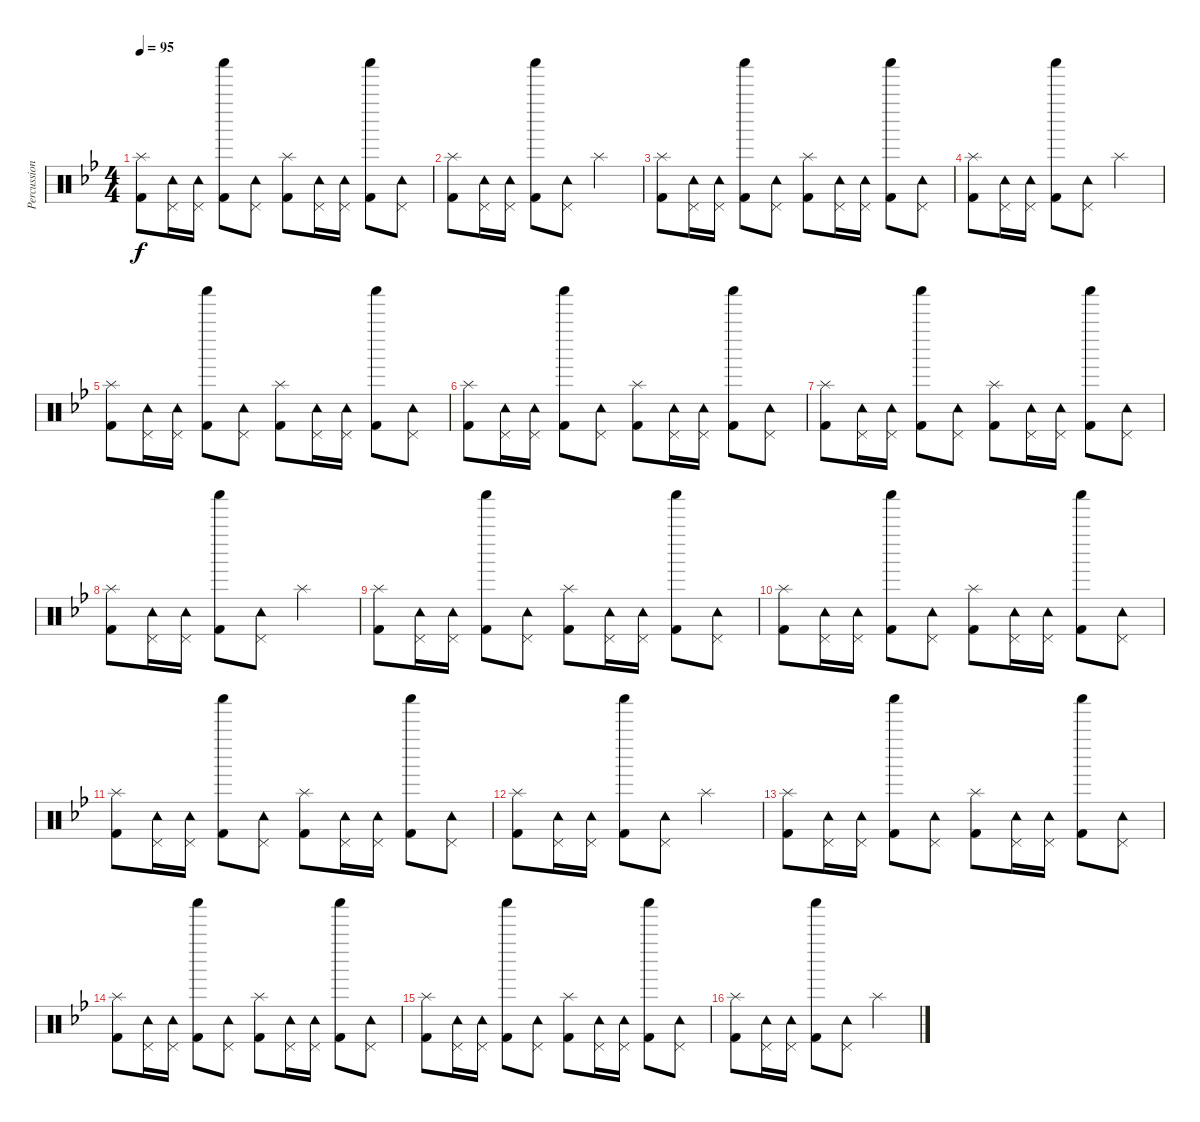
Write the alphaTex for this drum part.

\track ("Percussion" "Percussion") {instrument percussion}
\staff {score}
\articulation defaults
\ts (4 4)
\tempo 95
\clef neutral
\ks bb
("Kick (hit) 2" "Splash (hit)").8{dy f} ("Tambourine (hit)" "Pedal Hi-Hat (hit)").16 ("Tambourine (hit)" "Pedal Hi-Hat (hit)").16 ("Kick (hit) 2" "Shaker (hit)").8 ("Tambourine (hit)" "Pedal Hi-Hat (hit)").8 ("Kick (hit) 2" "Splash (hit)").8 ("Tambourine (hit)" "Pedal Hi-Hat (hit)").16 ("Tambourine (hit)" "Pedal Hi-Hat (hit)").16 ("Kick (hit) 2" "Shaker (hit)").8 ("Tambourine (hit)" "Pedal Hi-Hat (hit)").8 |
("Kick (hit) 2" "Splash (hit)").8 ("Tambourine (hit)" "Pedal Hi-Hat (hit)").16 ("Tambourine (hit)" "Pedal Hi-Hat (hit)").16 ("Kick (hit) 2" "Shaker (hit)").8 ("Tambourine (hit)" "Pedal Hi-Hat (hit)").8 "Splash (hit)".2 |
("Kick (hit) 2" "Splash (hit)").8 ("Tambourine (hit)" "Pedal Hi-Hat (hit)").16 ("Tambourine (hit)" "Pedal Hi-Hat (hit)").16 ("Kick (hit) 2" "Shaker (hit)").8 ("Tambourine (hit)" "Pedal Hi-Hat (hit)").8 ("Kick (hit) 2" "Splash (hit)").8 ("Tambourine (hit)" "Pedal Hi-Hat (hit)").16 ("Tambourine (hit)" "Pedal Hi-Hat (hit)").16 ("Kick (hit) 2" "Shaker (hit)").8 ("Tambourine (hit)" "Pedal Hi-Hat (hit)").8 |
("Kick (hit) 2" "Splash (hit)").8 ("Tambourine (hit)" "Pedal Hi-Hat (hit)").16 ("Tambourine (hit)" "Pedal Hi-Hat (hit)").16 ("Kick (hit) 2" "Shaker (hit)").8 ("Tambourine (hit)" "Pedal Hi-Hat (hit)").8 "Splash (hit)".2 |
("Kick (hit) 2" "Splash (hit)").8 ("Tambourine (hit)" "Pedal Hi-Hat (hit)").16 ("Tambourine (hit)" "Pedal Hi-Hat (hit)").16 ("Kick (hit) 2" "Shaker (hit)").8 ("Tambourine (hit)" "Pedal Hi-Hat (hit)").8 ("Kick (hit) 2" "Splash (hit)").8 ("Tambourine (hit)" "Pedal Hi-Hat (hit)").16 ("Tambourine (hit)" "Pedal Hi-Hat (hit)").16 ("Kick (hit) 2" "Shaker (hit)").8 ("Tambourine (hit)" "Pedal Hi-Hat (hit)").8 |
("Kick (hit) 2" "Splash (hit)").8 ("Tambourine (hit)" "Pedal Hi-Hat (hit)").16 ("Tambourine (hit)" "Pedal Hi-Hat (hit)").16 ("Kick (hit) 2" "Shaker (hit)").8 ("Tambourine (hit)" "Pedal Hi-Hat (hit)").8 ("Kick (hit) 2" "Splash (hit)").8 ("Tambourine (hit)" "Pedal Hi-Hat (hit)").16 ("Tambourine (hit)" "Pedal Hi-Hat (hit)").16 ("Kick (hit) 2" "Shaker (hit)").8 ("Tambourine (hit)" "Pedal Hi-Hat (hit)").8 |
("Kick (hit) 2" "Splash (hit)").8 ("Tambourine (hit)" "Pedal Hi-Hat (hit)").16 ("Tambourine (hit)" "Pedal Hi-Hat (hit)").16 ("Kick (hit) 2" "Shaker (hit)").8 ("Tambourine (hit)" "Pedal Hi-Hat (hit)").8 ("Kick (hit) 2" "Splash (hit)").8 ("Tambourine (hit)" "Pedal Hi-Hat (hit)").16 ("Tambourine (hit)" "Pedal Hi-Hat (hit)").16 ("Kick (hit) 2" "Shaker (hit)").8 ("Tambourine (hit)" "Pedal Hi-Hat (hit)").8 |
("Kick (hit) 2" "Splash (hit)").8 ("Tambourine (hit)" "Pedal Hi-Hat (hit)").16 ("Tambourine (hit)" "Pedal Hi-Hat (hit)").16 ("Kick (hit) 2" "Shaker (hit)").8 ("Tambourine (hit)" "Pedal Hi-Hat (hit)").8 "Splash (hit)".2 |
("Kick (hit) 2" "Splash (hit)").8 ("Tambourine (hit)" "Pedal Hi-Hat (hit)").16 ("Tambourine (hit)" "Pedal Hi-Hat (hit)").16 ("Kick (hit) 2" "Shaker (hit)").8 ("Tambourine (hit)" "Pedal Hi-Hat (hit)").8 ("Kick (hit) 2" "Splash (hit)").8 ("Tambourine (hit)" "Pedal Hi-Hat (hit)").16 ("Tambourine (hit)" "Pedal Hi-Hat (hit)").16 ("Kick (hit) 2" "Shaker (hit)").8 ("Tambourine (hit)" "Pedal Hi-Hat (hit)").8 |
("Kick (hit) 2" "Splash (hit)").8 ("Tambourine (hit)" "Pedal Hi-Hat (hit)").16 ("Tambourine (hit)" "Pedal Hi-Hat (hit)").16 ("Kick (hit) 2" "Shaker (hit)").8 ("Tambourine (hit)" "Pedal Hi-Hat (hit)").8 ("Kick (hit) 2" "Splash (hit)").8 ("Tambourine (hit)" "Pedal Hi-Hat (hit)").16 ("Tambourine (hit)" "Pedal Hi-Hat (hit)").16 ("Kick (hit) 2" "Shaker (hit)").8 ("Tambourine (hit)" "Pedal Hi-Hat (hit)").8 |
("Kick (hit) 2" "Splash (hit)").8 ("Tambourine (hit)" "Pedal Hi-Hat (hit)").16 ("Tambourine (hit)" "Pedal Hi-Hat (hit)").16 ("Kick (hit) 2" "Shaker (hit)").8 ("Tambourine (hit)" "Pedal Hi-Hat (hit)").8 ("Kick (hit) 2" "Splash (hit)").8 ("Tambourine (hit)" "Pedal Hi-Hat (hit)").16 ("Tambourine (hit)" "Pedal Hi-Hat (hit)").16 ("Kick (hit) 2" "Shaker (hit)").8 ("Tambourine (hit)" "Pedal Hi-Hat (hit)").8 |
("Kick (hit) 2" "Splash (hit)").8 ("Tambourine (hit)" "Pedal Hi-Hat (hit)").16 ("Tambourine (hit)" "Pedal Hi-Hat (hit)").16 ("Kick (hit) 2" "Shaker (hit)").8 ("Tambourine (hit)" "Pedal Hi-Hat (hit)").8 "Splash (hit)".2 |
("Kick (hit) 2" "Splash (hit)").8 ("Tambourine (hit)" "Pedal Hi-Hat (hit)").16 ("Tambourine (hit)" "Pedal Hi-Hat (hit)").16 ("Kick (hit) 2" "Shaker (hit)").8 ("Tambourine (hit)" "Pedal Hi-Hat (hit)").8 ("Kick (hit) 2" "Splash (hit)").8 ("Tambourine (hit)" "Pedal Hi-Hat (hit)").16 ("Tambourine (hit)" "Pedal Hi-Hat (hit)").16 ("Kick (hit) 2" "Shaker (hit)").8 ("Tambourine (hit)" "Pedal Hi-Hat (hit)").8 |
("Kick (hit) 2" "Splash (hit)").8 ("Tambourine (hit)" "Pedal Hi-Hat (hit)").16 ("Tambourine (hit)" "Pedal Hi-Hat (hit)").16 ("Kick (hit) 2" "Shaker (hit)").8 ("Tambourine (hit)" "Pedal Hi-Hat (hit)").8 ("Kick (hit) 2" "Splash (hit)").8 ("Tambourine (hit)" "Pedal Hi-Hat (hit)").16 ("Tambourine (hit)" "Pedal Hi-Hat (hit)").16 ("Kick (hit) 2" "Shaker (hit)").8 ("Tambourine (hit)" "Pedal Hi-Hat (hit)").8 |
("Kick (hit) 2" "Splash (hit)").8 ("Tambourine (hit)" "Pedal Hi-Hat (hit)").16 ("Tambourine (hit)" "Pedal Hi-Hat (hit)").16 ("Kick (hit) 2" "Shaker (hit)").8 ("Tambourine (hit)" "Pedal Hi-Hat (hit)").8 ("Kick (hit) 2" "Splash (hit)").8 ("Tambourine (hit)" "Pedal Hi-Hat (hit)").16 ("Tambourine (hit)" "Pedal Hi-Hat (hit)").16 ("Kick (hit) 2" "Shaker (hit)").8 ("Tambourine (hit)" "Pedal Hi-Hat (hit)").8 |
("Kick (hit) 2" "Splash (hit)").8 ("Tambourine (hit)" "Pedal Hi-Hat (hit)").16 ("Tambourine (hit)" "Pedal Hi-Hat (hit)").16 ("Kick (hit) 2" "Shaker (hit)").8 ("Tambourine (hit)" "Pedal Hi-Hat (hit)").8 "Splash (hit)".2
